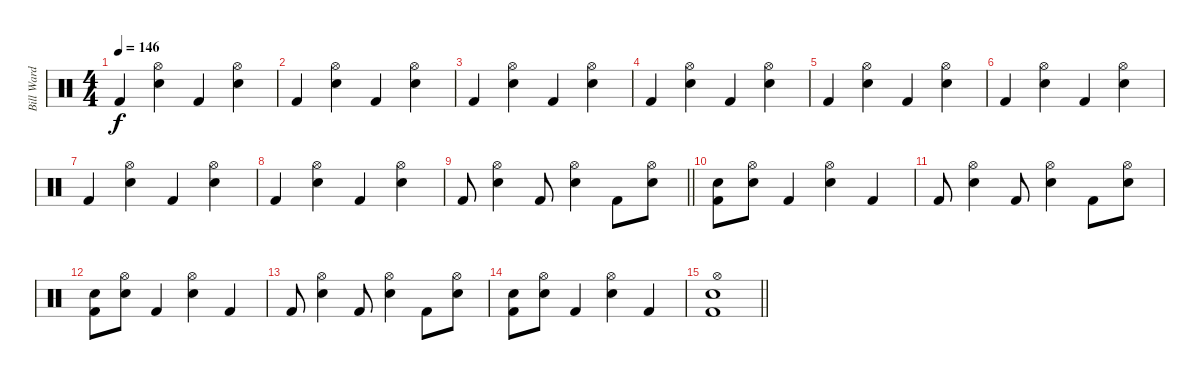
\track ("Bill Ward" "Bill Ward") {instrument percussion}
\staff {score}
\articulation defaults
\ts (4 4)
\tempo 146
\clef neutral
\ks c "Kick (hit) 2".4{dy f}
("Hi-Hat (open)" "Snare (hit) 2").4 "Kick (hit) 2".4 ("Hi-Hat (open)" "Snare (hit) 2").4 |
"Kick (hit) 2".4 ("Hi-Hat (open)" "Snare (hit) 2").4 "Kick (hit) 2".4 ("Hi-Hat (open)" "Snare (hit) 2").4 |
"Kick (hit) 2".4 ("Hi-Hat (open)" "Snare (hit) 2").4 "Kick (hit) 2".4 ("Hi-Hat (open)" "Snare (hit) 2").4 |
"Kick (hit) 2".4 ("Hi-Hat (open)" "Snare (hit) 2").4 "Kick (hit) 2".4 ("Hi-Hat (open)" "Snare (hit) 2").4 |
"Kick (hit) 2".4 ("Hi-Hat (open)" "Snare (hit) 2").4 "Kick (hit) 2".4 ("Hi-Hat (open)" "Snare (hit) 2").4 |
"Kick (hit) 2".4 ("Hi-Hat (open)" "Snare (hit) 2").4 "Kick (hit) 2".4 ("Hi-Hat (open)" "Snare (hit) 2").4 |
"Kick (hit) 2".4 ("Hi-Hat (open)" "Snare (hit) 2").4 "Kick (hit) 2".4 ("Hi-Hat (open)" "Snare (hit) 2").4 |
"Kick (hit) 2".4 ("Hi-Hat (open)" "Snare (hit) 2").4 "Kick (hit) 2".4 ("Hi-Hat (open)" "Snare (hit) 2").4 |
\barLineRight lightlight "Kick (hit) 2".8
("Hi-Hat (open)" "Snare (hit) 2").4 "Kick (hit) 2".8 ("Hi-Hat (open)" "Snare (hit) 2").4 "Kick (hit) 2".8 ("Hi-Hat (open)" "Snare (hit) 2").8 |
("Snare (hit) 2" "Kick (hit) 2").8 ("Hi-Hat (open)" "Snare (hit) 2").8 "Kick (hit) 2".4 ("Hi-Hat (open)" "Snare (hit) 2").4 "Kick (hit) 2".4 |
"Kick (hit) 2".8 ("Hi-Hat (open)" "Snare (hit) 2").4 "Kick (hit) 2".8 ("Hi-Hat (open)" "Snare (hit) 2").4 "Kick (hit) 2".8 ("Hi-Hat (open)" "Snare (hit) 2").8 |
("Snare (hit) 2" "Kick (hit) 2").8 ("Hi-Hat (open)" "Snare (hit) 2").8 "Kick (hit) 2".4 ("Hi-Hat (open)" "Snare (hit) 2").4 "Kick (hit) 2".4 |
"Kick (hit) 2".8 ("Hi-Hat (open)" "Snare (hit) 2").4 "Kick (hit) 2".8 ("Hi-Hat (open)" "Snare (hit) 2").4 "Kick (hit) 2".8 ("Hi-Hat (open)" "Snare (hit) 2").8 |
("Snare (hit) 2" "Kick (hit) 2").8 ("Hi-Hat (open)" "Snare (hit) 2").8 "Kick (hit) 2".4 ("Hi-Hat (open)" "Snare (hit) 2").4 "Kick (hit) 2".4 |
\barLineRight lightlight
("Hi-Hat (open)" "Snare (hit) 2" "Kick (hit) 2").1
